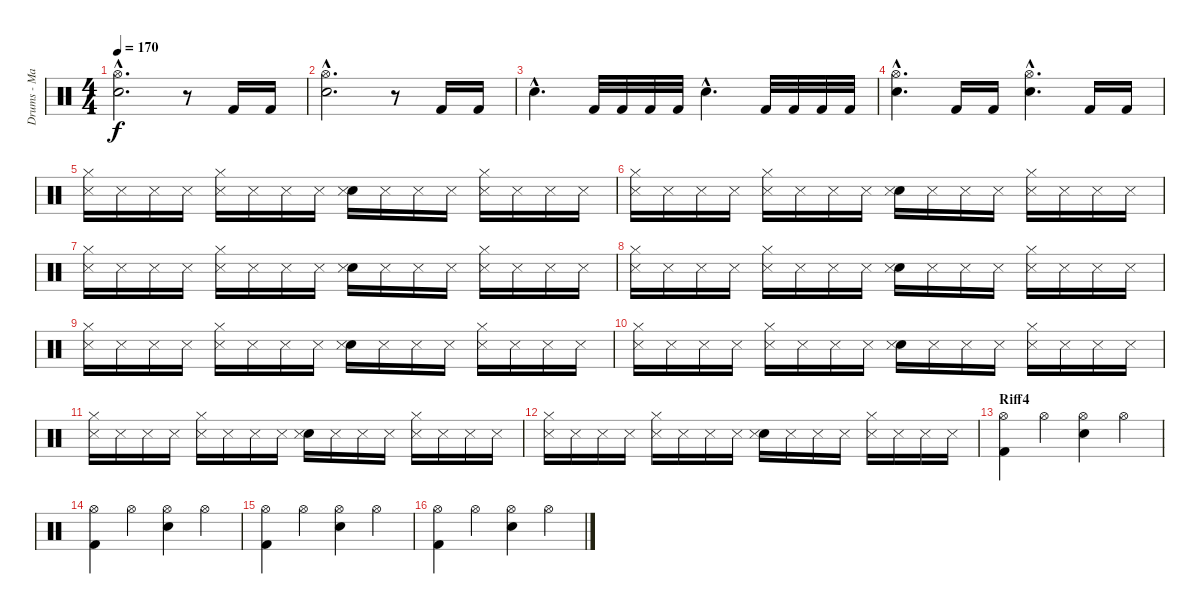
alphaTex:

\track ("Drums - Mattias Grahn" "Drums - Ma") {instrument percussion}
\staff {score}
\articulation defaults
\ts (4 4)
\tempo 170
\clef neutral
\ks c
("Hi-Hat (open)"{hac} "Snare (hit) 2"{hac}).2{d dy f} r.8 "Kick (hit) 2".16 "Kick (hit) 2".16 |
("Hi-Hat (open)"{hac} "Snare (hit) 2"{hac}).2{d} r.8 "Kick (hit) 2".16 "Kick (hit) 2".16 |
"Snare (hit) 2"{hac}.4{d} "Kick (hit) 2".32 "Kick (hit) 2".32 "Kick (hit) 2".32 "Kick (hit) 2".32 "Snare (hit) 2"{hac}.4{d} "Kick (hit) 2".32 "Kick (hit) 2".32 "Kick (hit) 2".32 "Kick (hit) 2".32 |
("Hi-Hat (open)"{hac} "Snare (hit) 2"{hac}).4{d} "Kick (hit) 2".16 "Kick (hit) 2".16 ("Hi-Hat (open)"{hac} "Snare (hit) 2"{hac}).4{d} "Kick (hit) 2".16 "Kick (hit) 2".16 |
("Hi-Hat (closed)" "Snare (side stick) 3").16 "Snare (side stick) 3".16 "Snare (side stick) 3".16 "Snare (side stick) 3".16 ("Hi-Hat (closed)" "Snare (side stick) 3").16 "Snare (side stick) 3".16 "Snare (side stick) 3".16 "Snare (side stick) 3".16 ("Electric Snare (hit)" "Snare (side stick) 3").16 "Snare (side stick) 3".16 "Snare (side stick) 3".16 "Snare (side stick) 3".16 ("Hi-Hat (closed)" "Snare (side stick) 3").16 "Snare (side stick) 3".16 "Snare (side stick) 3".16 "Snare (side stick) 3".16 |
("Hi-Hat (closed)" "Snare (side stick) 3").16 "Snare (side stick) 3".16 "Snare (side stick) 3".16 "Snare (side stick) 3".16 ("Hi-Hat (closed)" "Snare (side stick) 3").16 "Snare (side stick) 3".16 "Snare (side stick) 3".16 "Snare (side stick) 3".16 ("Electric Snare (hit)" "Snare (side stick) 3").16 "Snare (side stick) 3".16 "Snare (side stick) 3".16 "Snare (side stick) 3".16 ("Hi-Hat (closed)" "Snare (side stick) 3").16 "Snare (side stick) 3".16 "Snare (side stick) 3".16 "Snare (side stick) 3".16 |
("Hi-Hat (closed)" "Snare (side stick) 3").16 "Snare (side stick) 3".16 "Snare (side stick) 3".16 "Snare (side stick) 3".16 ("Hi-Hat (closed)" "Snare (side stick) 3").16 "Snare (side stick) 3".16 "Snare (side stick) 3".16 "Snare (side stick) 3".16 ("Electric Snare (hit)" "Snare (side stick) 3").16 "Snare (side stick) 3".16 "Snare (side stick) 3".16 "Snare (side stick) 3".16 ("Hi-Hat (closed)" "Snare (side stick) 3").16 "Snare (side stick) 3".16 "Snare (side stick) 3".16 "Snare (side stick) 3".16 |
("Hi-Hat (closed)" "Snare (side stick) 3").16 "Snare (side stick) 3".16 "Snare (side stick) 3".16 "Snare (side stick) 3".16 ("Hi-Hat (closed)" "Snare (side stick) 3").16 "Snare (side stick) 3".16 "Snare (side stick) 3".16 "Snare (side stick) 3".16 ("Electric Snare (hit)" "Snare (side stick) 3").16 "Snare (side stick) 3".16 "Snare (side stick) 3".16 "Snare (side stick) 3".16 ("Hi-Hat (closed)" "Snare (side stick) 3").16 "Snare (side stick) 3".16 "Snare (side stick) 3".16 "Snare (side stick) 3".16 |
("Hi-Hat (closed)" "Snare (side stick) 3").16 "Snare (side stick) 3".16 "Snare (side stick) 3".16 "Snare (side stick) 3".16 ("Hi-Hat (closed)" "Snare (side stick) 3").16 "Snare (side stick) 3".16 "Snare (side stick) 3".16 "Snare (side stick) 3".16 ("Electric Snare (hit)" "Snare (side stick) 3").16 "Snare (side stick) 3".16 "Snare (side stick) 3".16 "Snare (side stick) 3".16 ("Hi-Hat (closed)" "Snare (side stick) 3").16 "Snare (side stick) 3".16 "Snare (side stick) 3".16 "Snare (side stick) 3".16 |
("Hi-Hat (closed)" "Snare (side stick) 3").16 "Snare (side stick) 3".16 "Snare (side stick) 3".16 "Snare (side stick) 3".16 ("Hi-Hat (closed)" "Snare (side stick) 3").16 "Snare (side stick) 3".16 "Snare (side stick) 3".16 "Snare (side stick) 3".16 ("Electric Snare (hit)" "Snare (side stick) 3").16 "Snare (side stick) 3".16 "Snare (side stick) 3".16 "Snare (side stick) 3".16 ("Hi-Hat (closed)" "Snare (side stick) 3").16 "Snare (side stick) 3".16 "Snare (side stick) 3".16 "Snare (side stick) 3".16 |
("Hi-Hat (closed)" "Snare (side stick) 3").16 "Snare (side stick) 3".16 "Snare (side stick) 3".16 "Snare (side stick) 3".16 ("Hi-Hat (closed)" "Snare (side stick) 3").16 "Snare (side stick) 3".16 "Snare (side stick) 3".16 "Snare (side stick) 3".16 ("Electric Snare (hit)" "Snare (side stick) 3").16 "Snare (side stick) 3".16 "Snare (side stick) 3".16 "Snare (side stick) 3".16 ("Hi-Hat (closed)" "Snare (side stick) 3").16 "Snare (side stick) 3".16 "Snare (side stick) 3".16 "Snare (side stick) 3".16 |
("Hi-Hat (closed)" "Snare (side stick) 3").16 "Snare (side stick) 3".16 "Snare (side stick) 3".16 "Snare (side stick) 3".16 ("Hi-Hat (closed)" "Snare (side stick) 3").16 "Snare (side stick) 3".16 "Snare (side stick) 3".16 "Snare (side stick) 3".16 ("Electric Snare (hit)" "Snare (side stick) 3").16 "Snare (side stick) 3".16 "Snare (side stick) 3".16 "Snare (side stick) 3".16 ("Hi-Hat (closed)" "Snare (side stick) 3").16 "Snare (side stick) 3".16 "Snare (side stick) 3".16 "Snare (side stick) 3".16 |
\section ("" "Riff4")
("Hi-Hat (open)" "Kick (hit) 2").4 "Hi-Hat (open)".4 ("Hi-Hat (open)" "Snare (hit) 2").4 "Hi-Hat (open)".4 |
("Hi-Hat (open)" "Kick (hit) 2").4 "Hi-Hat (open)".4 ("Hi-Hat (open)" "Snare (hit) 2").4 "Hi-Hat (open)".4 |
("Hi-Hat (open)" "Kick (hit) 2").4 "Hi-Hat (open)".4 ("Hi-Hat (open)" "Snare (hit) 2").4 "Hi-Hat (open)".4 |
("Hi-Hat (open)" "Kick (hit) 2").4 "Hi-Hat (open)".4 ("Hi-Hat (open)" "Snare (hit) 2").4 "Hi-Hat (open)".4
